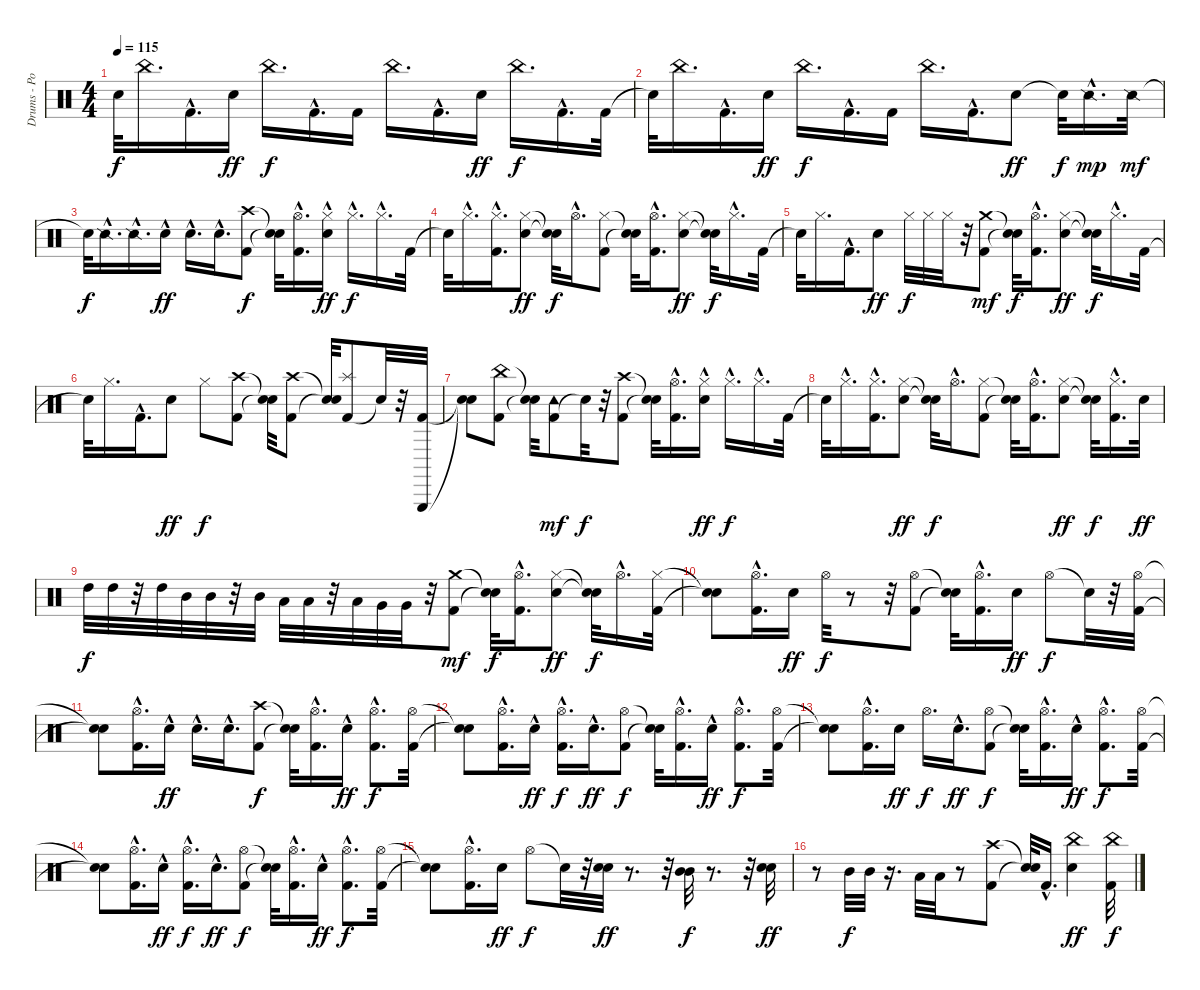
\track ("Drums - Portnoy" "Drums - Po") {instrument percussion}
\staff {score}
\articulation defaults
\ts (4 4)
\tempo 115
\clef neutral
\ks c "Snare (hit)"{t}.32{dy f} "China (hit)".16{d} "Kick (hit) 2"{hac}.16{d} "Electric Snare (hit)".16{dy ff} "China (hit)".16{d dy f} "Kick (hit) 2"{hac}.16{d} "Kick (hit) 2".16 "China (hit)".16{d} "Kick (hit) 2"{hac}.16{d} "Electric Snare (hit)".16{dy ff} "China (hit)".16{d dy f} "Kick (hit) 2"{hac}.16{d} "Kick (hit) 2".32
|
"Snare (hit)"{t}.32 "China (hit)".16{d} "Kick (hit) 2"{hac}.16{d} "Electric Snare (hit)".16{dy ff} "China (hit)".16{d dy f} "Kick (hit) 2"{hac}.16{d} "Kick (hit) 2".16 "China (hit)".16{d} "Kick (hit) 2"{hac}.16{d} "Electric Snare (hit)".8{dy ff} "Snare (hit)"{t}.32{dy f} "Snare (side stick) 2"{hac}.16{d dy mp} "Snare (side stick) 2".32{dy mf} |
"Snare (hit)"{t}.32{dy f} "Snare (side stick) 2"{hac}.16{d} "Snare (side stick) 2"{hac}.16{d} "Electric Snare (hit)"{hac}.16{dy ff} "Electric Snare (hit)"{hac}.16{d} "Electric Snare (hit)"{hac}.16{d} ("Kick (hit) 2" "Crash high (hit)").8{dy f} ("Snare (hit)"{t} "Snare (hit)"{t}).32 ("Kick (hit) 2"{hac} "Hi-Hat (open)"{hac}).16{d} ("Hi-Hat (closed)"{hac} "Electric Snare (hit)").16{dy ff} "Hi-Hat (closed)"{hac}.16{d dy f} "Hi-Hat (closed)"{hac}.16{d} "Kick (hit) 2".32 |
"Snare (hit)"{t}.32 "Hi-Hat (closed)"{hac}.16{d} ("Kick (hit) 2"{hac} "Hi-Hat (closed)"{hac}).16{d} ("Hi-Hat (closed)" "Electric Snare (hit)").8{dy ff} ("Snare (hit)"{t} "Snare (hit)"{t}).32{dy f} "Hi-Hat (open)"{hac}.16{d} ("Kick (hit) 2" "Hi-Hat (closed)").8 ("Snare (hit)"{t} "Snare (hit)"{t}).32 ("Kick (hit) 2"{hac} "Hi-Hat (open)"{hac}).16{d} ("Hi-Hat (closed)" "Electric Snare (hit)").8{dy ff} ("Snare (hit)"{t} "Snare (hit)"{t}).32{dy f} "Hi-Hat (closed)"{hac}.16{d} "Kick (hit) 2".32 |
"Snare (hit)"{t}.32 "Hi-Hat (closed)".16{d} "Kick (hit) 2"{hac}.16{d} "Electric Snare (hit)".8{dy ff} "Hi-Hat (closed)".32{dy f} "Hi-Hat (closed)".32 "Hi-Hat (closed)".32 r.32 ("Kick (hit) 2" "Crash medium (hit)").8{dy mf} ("Snare (hit)"{t} "Snare (hit)"{t}).32{dy f} ("Kick (hit) 2"{hac} "Hi-Hat (open)"{hac}).16{d} ("Hi-Hat (closed)" "Electric Snare (hit)").8{dy ff} ("Snare (hit)"{t} "Snare (hit)"{t}).32{dy f} "Hi-Hat (closed)"{hac}.16{d} "Kick (hit) 2".32 |
"Snare (hit)"{t}.32 "Hi-Hat (closed)".16{d} "Kick (hit) 2"{hac}.16{d} "Electric Snare (hit)".8{dy ff} "Hi-Hat (closed)".8{dy f} ("Crash high (hit)" "Kick (hit) 2").8 ("Snare (hit)"{t} "Snare (hit)"{t}).32 ("Crash high (hit)" "Kick (hit) 2").8 ("Snare (hit)"{t} "Snare (hit)"{t}).32 ("Kick (hit) 2" "Splash (hit)").8 "Snare (hit)"{t}.32 r.32 ("Kick (hit) 2" "Triangle (hit)").32 |
("Snare (hit)"{t} "Snare (hit)"{t}).8 ("Kick (hit) 2" "China (hit)").8 ("Snare (hit)"{t} "Snare (hit)"{t}).32 ("Kick (hit) 2" "Tambourine (hit)").8{dy mf} "Snare (hit)"{t}.32{dy f} r.32 ("Crash high (hit)" "Kick (hit) 2").8 ("Snare (hit)"{t} "Snare (hit)"{t}).32 ("Kick (hit) 2"{hac} "Hi-Hat (open)"{hac}).16{d} ("Hi-Hat (closed)"{hac} "Electric Snare (hit)").16{dy ff} "Hi-Hat (closed)"{hac}.16{d dy f} "Hi-Hat (closed)"{hac}.16{d} "Kick (hit) 2".32 |
"Snare (hit)"{t}.32 "Hi-Hat (closed)"{hac}.16{d} ("Kick (hit) 2"{hac} "Hi-Hat (closed)"{hac}).16{d} ("Hi-Hat (closed)" "Electric Snare (hit)").8{dy ff} ("Snare (hit)"{t} "Snare (hit)"{t}).32{dy f} "Hi-Hat (open)"{hac}.16{d} ("Kick (hit) 2" "Hi-Hat (closed)").8 ("Snare (hit)"{t} "Snare (hit)"{t}).32 ("Kick (hit) 2"{hac} "Hi-Hat (open)"{hac}).16{d} ("Hi-Hat (closed)" "Electric Snare (hit)").8{dy ff} ("Snare (hit)"{t} "Snare (hit)"{t}).32{dy f} ("Hi-Hat (closed)"{hac} "Kick (hit) 2"{hac}).16{d} "Electric Snare (hit)".32{dy ff} |
"High Tom (hit)".32{dy f} "High Tom (hit)".32 r.32 "High Tom (hit)".32 "Mid Tom (hit)".32 "Mid Tom (hit)".32 r.32 "Mid Tom (hit)".32 "Low Tom (hit)".32 "Low Tom (hit)".32 r.32 "Low Tom (hit)".32 "Very Low Tom (hit)".32 "Very Low Tom (hit)".32 r.32 ("Kick (hit) 2" "Crash medium (hit)").8{dy mf} ("Snare (hit)"{t} "Snare (hit)"{t}).32{dy f} ("Kick (hit) 2"{hac} "Hi-Hat (open)"{hac}).16{d} ("Hi-Hat (closed)" "Electric Snare (hit)").8{dy ff} ("Snare (hit)"{t} "Snare (hit)"{t}).32{dy f} "Hi-Hat (open)"{hac}.16{d} ("Kick (hit) 2" "Hi-Hat (closed)").32 |
("Snare (hit)"{t} "Snare (hit)"{t}).8 ("Kick (hit) 2"{hac} "Hi-Hat (open)"{hac}).16{d} "Electric Snare (hit)".16{dy ff} "Hi-Hat (open)".32{dy f} r.8 r.32 ("Kick (hit) 2" "Hi-Hat (open)").8 ("Snare (hit)"{t} "Snare (hit)"{t}).32 ("Kick (hit) 2"{hac} "Hi-Hat (open)").16{d} "Electric Snare (hit)".16{dy ff} "Hi-Hat (open)".8{dy f} "Snare (hit)"{t}.32 r.32 ("Kick (hit) 2" "Hi-Hat (open)").32 |
("Snare (hit)"{t} "Snare (hit)"{t}).8 ("Kick (hit) 2"{hac} "Hi-Hat (open)").16{d} "Electric Snare (hit)"{hac}.16{dy ff} "Electric Snare (hit)"{hac}.16{d} "Electric Snare (hit)"{hac}.16{d} ("Kick (hit) 2" "Crash high (hit)").8{dy f} ("Snare (hit)"{t} "Snare (hit)"{t}).32 ("Kick (hit) 2"{hac} "Hi-Hat (open)").16{d} "Electric Snare (hit)"{hac}.16{dy ff} ("Kick (hit) 2"{hac} "Hi-Hat (open)").8{d dy f} ("Kick (hit) 2" "Hi-Hat (open)").32 |
("Snare (hit)"{t} "Snare (hit)"{t}).8 ("Kick (hit) 2"{hac} "Hi-Hat (open)").16{d} "Electric Snare (hit)"{hac}.16{dy ff} ("Hi-Hat (open)" "Kick (hit) 2"{hac}).16{d dy f} "Electric Snare (hit)"{hac}.16{d dy ff} ("Kick (hit) 2" "Hi-Hat (open)").8{dy f} ("Snare (hit)"{t} "Snare (hit)"{t}).32 ("Kick (hit) 2"{hac} "Hi-Hat (open)").16{d} "Electric Snare (hit)"{hac}.16{dy ff} ("Kick (hit) 2"{hac} "Hi-Hat (open)").8{d dy f} ("Kick (hit) 2" "Hi-Hat (open)").32 |
("Snare (hit)"{t} "Snare (hit)"{t}).8 ("Kick (hit) 2"{hac} "Hi-Hat (open)").16{d} "Electric Snare (hit)".16{dy ff} "Hi-Hat (open)".16{d dy f} "Electric Snare (hit)"{hac}.16{d dy ff} ("Kick (hit) 2" "Hi-Hat (open)").8{dy f} ("Snare (hit)"{t} "Snare (hit)"{t}).32 ("Kick (hit) 2"{hac} "Hi-Hat (open)").16{d} "Electric Snare (hit)"{hac}.16{dy ff} ("Kick (hit) 2"{hac} "Hi-Hat (open)").8{d dy f} ("Kick (hit) 2" "Hi-Hat (open)").32 |
("Snare (hit)"{t} "Snare (hit)"{t}).8 ("Kick (hit) 2"{hac} "Hi-Hat (open)").16{d} "Electric Snare (hit)"{hac}.16{dy ff} ("Kick (hit) 2"{hac} "Hi-Hat (open)").16{d dy f} "Electric Snare (hit)"{hac}.16{d dy ff} ("Kick (hit) 2" "Hi-Hat (open)").8{dy f} ("Snare (hit)"{t} "Snare (hit)"{t}).32 ("Kick (hit) 2"{hac} "Hi-Hat (open)").16{d} "Electric Snare (hit)"{hac}.16{dy ff} ("Kick (hit) 2"{hac} "Hi-Hat (open)").8{d dy f} ("Kick (hit) 2" "Hi-Hat (open)").32 |
("Snare (hit)"{t} "Snare (hit)"{t}).8 ("Kick (hit) 2"{hac} "Hi-Hat (open)"{hac}).16{d} "Electric Snare (hit)".16{dy ff} "Hi-Hat (open)".8{dy f} "Snare (hit)"{t}.32 r.32 ("Electric Snare (hit)" "Electric Snare (hit)").32{dy ff} r.8{d} r.32 ("Mid Tom (hit)" "Mid Tom (hit)").32{dy f} r.8{d} r.32 ("Electric Snare (hit)" "Electric Snare (hit)").32{dy ff} |
r.8 "Mid Tom (hit)".32{dy f} "Mid Tom (hit)".32 r.16{d} "Low Tom (hit)".32 "Low Tom (hit)".32 r.8 ("Kick (hit) 2" "Crash high (hit)").8 ("Snare (hit)"{t} "Snare (hit)"{t}).32 "Kick (hit) 2"{hac}.16{d} ("Electric Snare (hit)" "China (hit)").4{dy ff} ("Kick (hit) 2" "China (hit)").32{dy f}
